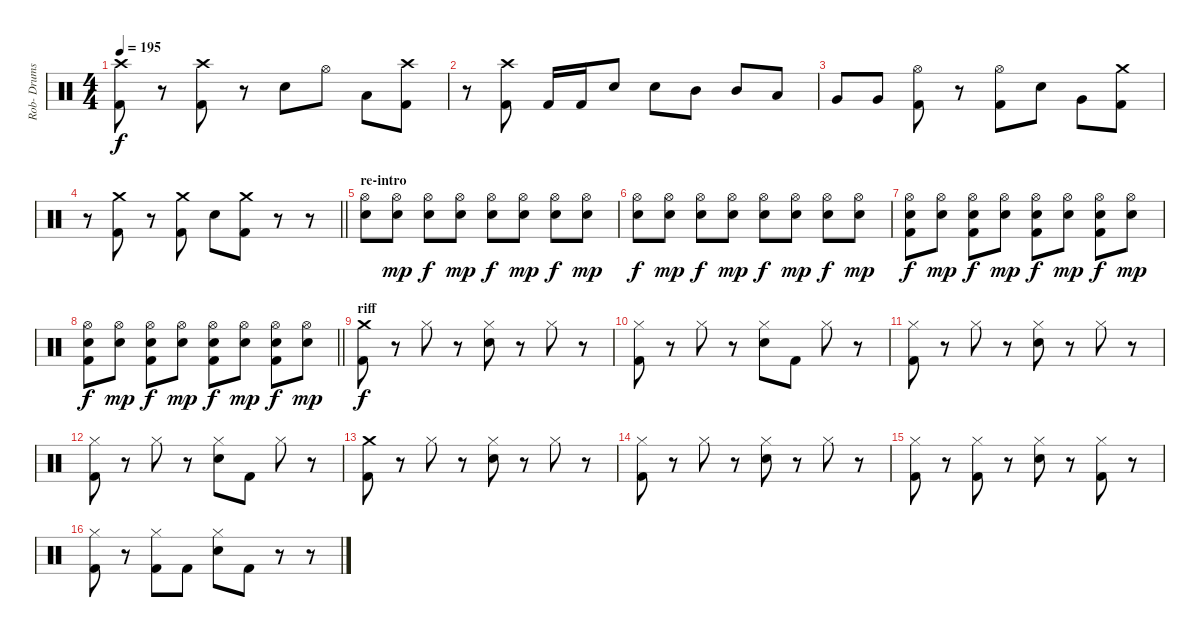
\track ("Rob- Drums" "Rob- Drums") {instrument percussion}
\staff {score}
\articulation defaults
\ts (4 4)
\tempo 195
\clef neutral
\ks c
("Crash high (hit)" "Kick (hit) 2").8{dy f} r.8 ("Crash high (hit)" "Kick (hit) 2").8 r.8 "Electric Snare (hit)".8 "Hi-Hat (open)".8 "Low Tom (hit)".8 ("Crash high (hit)" "Kick (hit) 2").8 |
r.8 ("Crash high (hit)" "Kick (hit) 2").8 "Kick (hit) 2".16 "Kick (hit) 2".16 "Electric Snare (hit)".8 "Electric Snare (hit)".8 "Mid Tom (hit)".8 "Mid Tom (hit)".8 "Low Tom (hit)".8 |
"Very Low Tom (hit)".8 "Very Low Tom (hit)".8 ("Hi-Hat (open)" "Kick (hit) 2").8 r.8 ("Hi-Hat (open)" "Kick (hit) 2").8 "Electric Snare (hit)".8 "Very Low Tom (hit)".8 ("Crash medium (hit)" "Kick (hit) 2").8 |
\barLineRight lightlight
r.8 ("Crash medium (hit)" "Kick (hit) 2").8 r.8 ("Crash medium (hit)" "Kick (hit) 2").8 "Electric Snare (hit)".8 ("Crash medium (hit)" "Kick (hit) 2").8 r.8 r.8 |
\section ("" "re-intro")
("Hi-Hat (open)" "Electric Snare (hit)").8 ("Hi-Hat (open)" "Electric Snare (hit)").8{dy mp} ("Hi-Hat (open)" "Electric Snare (hit)").8{dy f} ("Hi-Hat (open)" "Electric Snare (hit)").8{dy mp} ("Hi-Hat (open)" "Electric Snare (hit)").8{dy f} ("Hi-Hat (open)" "Electric Snare (hit)").8{dy mp} ("Hi-Hat (open)" "Electric Snare (hit)").8{dy f} ("Hi-Hat (open)" "Electric Snare (hit)").8{dy mp} |
("Hi-Hat (open)" "Electric Snare (hit)").8{dy f} ("Hi-Hat (open)" "Electric Snare (hit)").8{dy mp} ("Hi-Hat (open)" "Electric Snare (hit)").8{dy f} ("Hi-Hat (open)" "Electric Snare (hit)").8{dy mp} ("Hi-Hat (open)" "Electric Snare (hit)").8{dy f} ("Hi-Hat (open)" "Electric Snare (hit)").8{dy mp} ("Hi-Hat (open)" "Electric Snare (hit)").8{dy f} ("Hi-Hat (open)" "Electric Snare (hit)").8{dy mp} |
("Hi-Hat (open)" "Electric Snare (hit)" "Kick (hit) 2").8{dy f} ("Hi-Hat (open)" "Electric Snare (hit)").8{dy mp} ("Hi-Hat (open)" "Electric Snare (hit)" "Kick (hit) 2").8{dy f} ("Hi-Hat (open)" "Electric Snare (hit)").8{dy mp} ("Hi-Hat (open)" "Electric Snare (hit)" "Kick (hit) 2").8{dy f} ("Hi-Hat (open)" "Electric Snare (hit)").8{dy mp} ("Hi-Hat (open)" "Electric Snare (hit)" "Kick (hit) 2").8{dy f} ("Hi-Hat (open)" "Electric Snare (hit)").8{dy mp} |
\barLineRight lightlight
("Hi-Hat (open)" "Electric Snare (hit)" "Kick (hit) 2").8{dy f} ("Hi-Hat (open)" "Electric Snare (hit)").8{dy mp} ("Hi-Hat (open)" "Electric Snare (hit)" "Kick (hit) 2").8{dy f} ("Hi-Hat (open)" "Electric Snare (hit)").8{dy mp} ("Hi-Hat (open)" "Electric Snare (hit)" "Kick (hit) 2").8{dy f} ("Hi-Hat (open)" "Electric Snare (hit)").8{dy mp} ("Hi-Hat (open)" "Electric Snare (hit)" "Kick (hit) 2").8{dy f} ("Hi-Hat (open)" "Electric Snare (hit)").8{dy mp} |
\section ("" "riff")
("Crash medium (hit)" "Kick (hit) 2").8{dy f} r.8 "Hi-Hat (closed)".8 r.8 ("Hi-Hat (closed)" "Electric Snare (hit)").8 r.8 "Hi-Hat (closed)".8 r.8 |
("Hi-Hat (closed)" "Kick (hit) 2").8 r.8 "Hi-Hat (closed)".8 r.8 ("Hi-Hat (closed)" "Electric Snare (hit)").8 "Kick (hit) 2".8 "Hi-Hat (closed)".8 r.8 |
("Hi-Hat (closed)" "Kick (hit) 2").8 r.8 "Hi-Hat (closed)".8 r.8 ("Hi-Hat (closed)" "Electric Snare (hit)").8 r.8 "Hi-Hat (closed)".8 r.8 |
("Hi-Hat (closed)" "Kick (hit) 2").8 r.8 "Hi-Hat (closed)".8 r.8 ("Hi-Hat (closed)" "Electric Snare (hit)").8 "Kick (hit) 2".8 "Hi-Hat (closed)".8 r.8 |
("Crash medium (hit)" "Kick (hit) 2").8 r.8 "Hi-Hat (closed)".8 r.8 ("Hi-Hat (closed)" "Electric Snare (hit)").8 r.8 "Hi-Hat (closed)".8 r.8 |
("Hi-Hat (closed)" "Kick (hit) 2").8 r.8 "Hi-Hat (closed)".8 r.8 ("Hi-Hat (closed)" "Electric Snare (hit)").8 r.8 "Hi-Hat (closed)".8 r.8 |
("Hi-Hat (closed)" "Kick (hit) 2").8 r.8 ("Hi-Hat (closed)" "Kick (hit) 2").8 r.8 ("Hi-Hat (closed)" "Electric Snare (hit)").8 r.8 ("Hi-Hat (closed)" "Kick (hit) 2").8 r.8 |
("Hi-Hat (closed)" "Kick (hit) 2").8 r.8 ("Hi-Hat (closed)" "Kick (hit) 2").8 "Kick (hit) 2".8 ("Hi-Hat (closed)" "Electric Snare (hit)").8 "Kick (hit) 2".8 r.8 r.8
